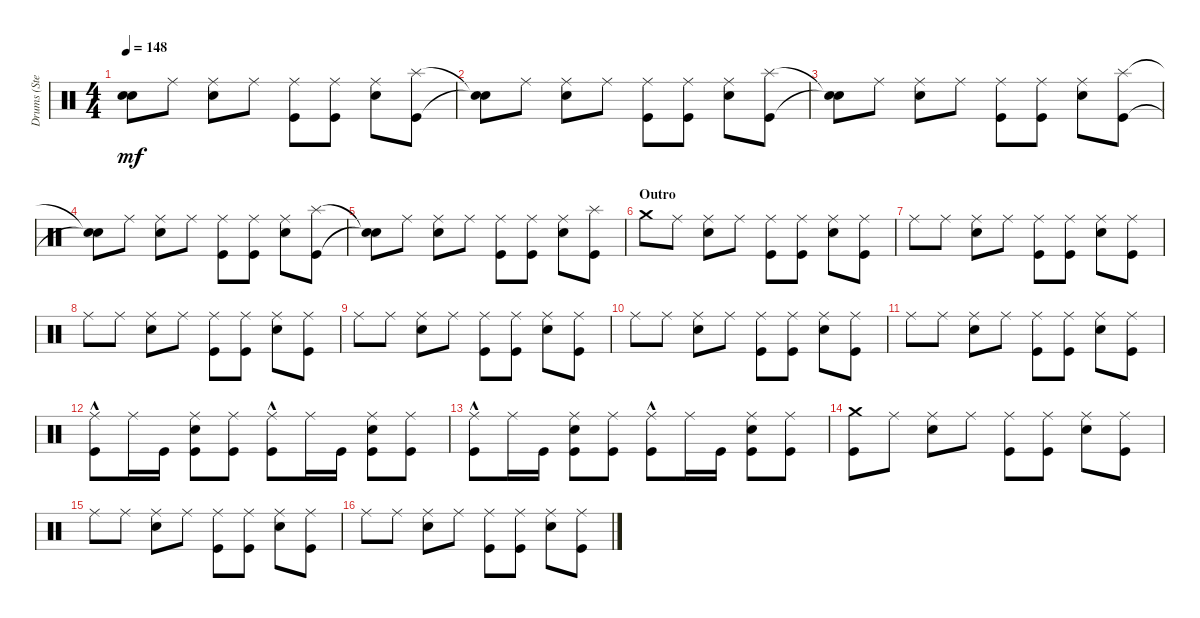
\track ("Drums (Steven)" "Drums (Ste") {instrument percussion}
\staff {score}
\articulation defaults
\ts (4 4)
\tempo 148
\clef neutral
\ks c
("Snare (hit)"{t} "Snare (hit)"{t}).8{dy mf} "Ride (middle)".8 ("Snare (hit) 2" "Ride (middle)").8 "Ride (middle)".8 ("Kick (hit)" "Ride (middle)").8 ("Kick (hit)" "Ride (middle)").8 ("Snare (hit) 2" "Ride (middle)").8 ("Kick (hit)" "Splash (hit)").8 |
("Snare (hit)"{t} "Snare (hit)"{t}).8 "Ride (middle)".8 ("Snare (hit) 2" "Ride (middle)").8 "Ride (middle)".8 ("Kick (hit)" "Ride (middle)").8 ("Kick (hit)" "Ride (middle)").8 ("Snare (hit) 2" "Ride (middle)").8 ("Kick (hit)" "Splash (hit)").8 |
("Snare (hit)"{t} "Snare (hit)"{t}).8 "Ride (middle)".8 ("Snare (hit) 2" "Ride (middle)").8 "Ride (middle)".8 ("Kick (hit)" "Ride (middle)").8 ("Kick (hit)" "Ride (middle)").8 ("Snare (hit) 2" "Ride (middle)").8 ("Kick (hit)" "Splash (hit)").8 |
("Snare (hit)"{t} "Snare (hit)"{t}).8 "Ride (middle)".8 ("Snare (hit) 2" "Ride (middle)").8 "Ride (middle)".8 ("Kick (hit)" "Ride (middle)").8 ("Kick (hit)" "Ride (middle)").8 ("Snare (hit) 2" "Ride (middle)").8 ("Kick (hit)" "Splash (hit)").8 |
("Snare (hit)"{t} "Snare (hit)"{t}).8 "Ride (middle)".8 ("Snare (hit) 2" "Ride (middle)").8 "Ride (middle)".8 ("Kick (hit)" "Ride (middle)").8 ("Kick (hit)" "Ride (middle)").8 ("Snare (hit) 2" "Ride (middle)").8 ("Kick (hit)" "Splash (hit)").8 |
\section ("" "Outro")
"Crash medium (hit)".8 "Ride (middle)".8 ("Snare (hit) 2" "Ride (middle)").8 "Ride (middle)".8 ("Kick (hit)" "Ride (middle)").8 ("Kick (hit)" "Ride (middle)").8 ("Snare (hit) 2" "Ride (middle)").8 ("Kick (hit)" "Ride (middle)").8 |
"Ride (middle)".8 "Ride (middle)".8 ("Snare (hit) 2" "Ride (middle)").8 "Ride (middle)".8 ("Kick (hit)" "Ride (middle)").8 ("Kick (hit)" "Ride (middle)").8 ("Snare (hit) 2" "Ride (middle)").8 ("Kick (hit)" "Ride (middle)").8 |
"Ride (middle)".8 "Ride (middle)".8 ("Snare (hit) 2" "Ride (middle)").8 "Ride (middle)".8 ("Kick (hit)" "Ride (middle)").8 ("Kick (hit)" "Ride (middle)").8 ("Snare (hit) 2" "Ride (middle)").8 ("Kick (hit)" "Ride (middle)").8 |
"Ride (middle)".8 "Ride (middle)".8 ("Snare (hit) 2" "Ride (middle)").8 "Ride (middle)".8 ("Kick (hit)" "Ride (middle)").8 ("Kick (hit)" "Ride (middle)").8 ("Snare (hit) 2" "Ride (middle)").8 ("Kick (hit)" "Ride (middle)").8 |
"Ride (middle)".8 "Ride (middle)".8 ("Snare (hit) 2" "Ride (middle)").8 "Ride (middle)".8 ("Kick (hit)" "Ride (middle)").8 ("Kick (hit)" "Ride (middle)").8 ("Snare (hit) 2" "Ride (middle)").8 ("Kick (hit)" "Ride (middle)").8 |
"Ride (middle)".8 "Ride (middle)".8 ("Snare (hit) 2" "Ride (middle)").8 "Ride (middle)".8 ("Kick (hit)" "Ride (middle)").8 ("Kick (hit)" "Ride (middle)").8 ("Snare (hit) 2" "Ride (middle)").8 ("Kick (hit)" "Ride (middle)").8 |
("Kick (hit)"{hac} "Ride (middle)").8 "Ride (middle)".16 "Kick (hit)".16 ("Kick (hit)" "Snare (hit) 2" "Ride (middle)").8 ("Kick (hit)" "Ride (middle)").8 ("Kick (hit)"{hac} "Ride (middle)").8 "Ride (middle)".16 "Kick (hit)".16 ("Kick (hit)" "Snare (hit) 2" "Ride (middle)").8 ("Kick (hit)" "Ride (middle)").8 |
("Kick (hit)"{hac} "Ride (middle)").8 "Ride (middle)".16 "Kick (hit)".16 ("Kick (hit)" "Snare (hit) 2" "Ride (middle)").8 ("Kick (hit)" "Ride (middle)").8 ("Kick (hit)"{hac} "Ride (middle)").8 "Ride (middle)".16 "Kick (hit)".16 ("Kick (hit)" "Snare (hit) 2" "Ride (middle)").8 ("Kick (hit)" "Ride (middle)").8 |
("Kick (hit)" "Crash medium (hit)").8 "Ride (middle)".8 ("Snare (hit) 2" "Ride (middle)").8 "Ride (middle)".8 ("Kick (hit)" "Ride (middle)").8 ("Kick (hit)" "Ride (middle)").8 ("Snare (hit) 2" "Ride (middle)").8 ("Kick (hit)" "Ride (middle)").8 |
"Ride (middle)".8 "Ride (middle)".8 ("Snare (hit) 2" "Ride (middle)").8 "Ride (middle)".8 ("Kick (hit)" "Ride (middle)").8 ("Kick (hit)" "Ride (middle)").8 ("Snare (hit) 2" "Ride (middle)").8 ("Kick (hit)" "Ride (middle)").8 |
"Ride (middle)".8 "Ride (middle)".8 ("Snare (hit) 2" "Ride (middle)").8 "Ride (middle)".8 ("Kick (hit)" "Ride (middle)").8 ("Kick (hit)" "Ride (middle)").8 ("Snare (hit) 2" "Ride (middle)").8 ("Kick (hit)" "Ride (middle)").8
